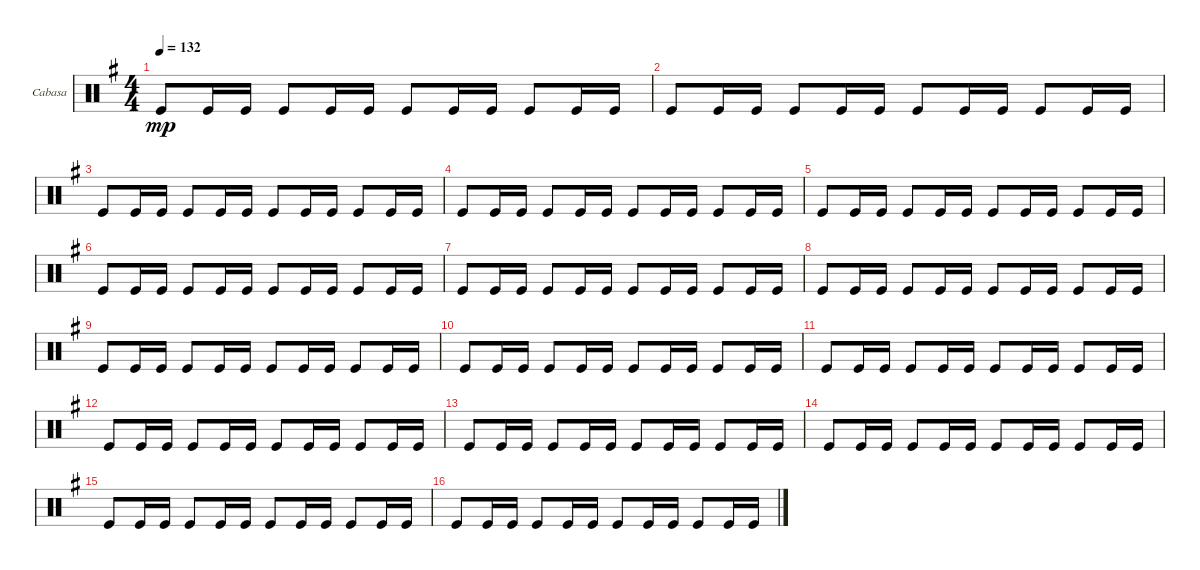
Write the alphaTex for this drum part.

\bracketExtendMode groupsimilarinstruments
\firstSystemTrackNameOrientation horizontal
\otherSystemsTrackNameOrientation horizontal
\track ("Cabasa" "Cabasa") {instrument percussion}
\staff {score}
\articulation defaults
\ts (4 4)
\tempo 132
\clef neutral
\scale
0.333333
\ks g "Kick (hit)".8{dy mp} "Kick (hit)".16 "Kick (hit)".16 "Kick (hit)".8 "Kick (hit)".16 "Kick (hit)".16 "Kick (hit)".8 "Kick (hit)".16 "Kick (hit)".16 "Kick (hit)".8 "Kick (hit)".16 "Kick (hit)".16
|
\scale
0.333333 "Kick (hit)".8 "Kick (hit)".16 "Kick (hit)".16 "Kick (hit)".8 "Kick (hit)".16 "Kick (hit)".16 "Kick (hit)".8 "Kick (hit)".16 "Kick (hit)".16 "Kick (hit)".8 "Kick (hit)".16 "Kick (hit)".16 |
\scale
0.333333 "Kick (hit)".8 "Kick (hit)".16 "Kick (hit)".16 "Kick (hit)".8 "Kick (hit)".16 "Kick (hit)".16 "Kick (hit)".8 "Kick (hit)".16 "Kick (hit)".16 "Kick (hit)".8 "Kick (hit)".16 "Kick (hit)".16 |
\scale
0.333333 "Kick (hit)".8 "Kick (hit)".16 "Kick (hit)".16 "Kick (hit)".8 "Kick (hit)".16 "Kick (hit)".16 "Kick (hit)".8 "Kick (hit)".16 "Kick (hit)".16 "Kick (hit)".8 "Kick (hit)".16 "Kick (hit)".16 |
\scale
0.333333 "Kick (hit)".8 "Kick (hit)".16 "Kick (hit)".16 "Kick (hit)".8 "Kick (hit)".16 "Kick (hit)".16 "Kick (hit)".8 "Kick (hit)".16 "Kick (hit)".16 "Kick (hit)".8 "Kick (hit)".16 "Kick (hit)".16 |
\scale
0.333333 "Kick (hit)".8 "Kick (hit)".16 "Kick (hit)".16 "Kick (hit)".8 "Kick (hit)".16 "Kick (hit)".16 "Kick (hit)".8 "Kick (hit)".16 "Kick (hit)".16 "Kick (hit)".8 "Kick (hit)".16 "Kick (hit)".16 |
\scale
0.333333 "Kick (hit)".8 "Kick (hit)".16 "Kick (hit)".16 "Kick (hit)".8 "Kick (hit)".16 "Kick (hit)".16 "Kick (hit)".8 "Kick (hit)".16 "Kick (hit)".16 "Kick (hit)".8 "Kick (hit)".16 "Kick (hit)".16 |
\scale
0.333333 "Kick (hit)".8 "Kick (hit)".16 "Kick (hit)".16 "Kick (hit)".8 "Kick (hit)".16 "Kick (hit)".16 "Kick (hit)".8 "Kick (hit)".16 "Kick (hit)".16 "Kick (hit)".8 "Kick (hit)".16 "Kick (hit)".16 |
\scale
0.333333 "Kick (hit)".8 "Kick (hit)".16 "Kick (hit)".16 "Kick (hit)".8 "Kick (hit)".16 "Kick (hit)".16 "Kick (hit)".8 "Kick (hit)".16 "Kick (hit)".16 "Kick (hit)".8 "Kick (hit)".16 "Kick (hit)".16 |
\scale
0.333333 "Kick (hit)".8 "Kick (hit)".16 "Kick (hit)".16 "Kick (hit)".8 "Kick (hit)".16 "Kick (hit)".16 "Kick (hit)".8 "Kick (hit)".16 "Kick (hit)".16 "Kick (hit)".8 "Kick (hit)".16 "Kick (hit)".16 |
\scale
0.333333 "Kick (hit)".8 "Kick (hit)".16 "Kick (hit)".16 "Kick (hit)".8 "Kick (hit)".16 "Kick (hit)".16 "Kick (hit)".8 "Kick (hit)".16 "Kick (hit)".16 "Kick (hit)".8 "Kick (hit)".16 "Kick (hit)".16 |
\scale
0.333333 "Kick (hit)".8 "Kick (hit)".16 "Kick (hit)".16 "Kick (hit)".8 "Kick (hit)".16 "Kick (hit)".16 "Kick (hit)".8 "Kick (hit)".16 "Kick (hit)".16 "Kick (hit)".8 "Kick (hit)".16 "Kick (hit)".16 |
\scale
0.333333 "Kick (hit)".8 "Kick (hit)".16 "Kick (hit)".16 "Kick (hit)".8 "Kick (hit)".16 "Kick (hit)".16 "Kick (hit)".8 "Kick (hit)".16 "Kick (hit)".16 "Kick (hit)".8 "Kick (hit)".16 "Kick (hit)".16 |
\scale
0.333333 "Kick (hit)".8 "Kick (hit)".16 "Kick (hit)".16 "Kick (hit)".8 "Kick (hit)".16 "Kick (hit)".16 "Kick (hit)".8 "Kick (hit)".16 "Kick (hit)".16 "Kick (hit)".8 "Kick (hit)".16 "Kick (hit)".16 |
\scale
0.333333 "Kick (hit)".8 "Kick (hit)".16 "Kick (hit)".16 "Kick (hit)".8 "Kick (hit)".16 "Kick (hit)".16 "Kick (hit)".8 "Kick (hit)".16 "Kick (hit)".16 "Kick (hit)".8 "Kick (hit)".16 "Kick (hit)".16 |
\scale
0.333333 "Kick (hit)".8 "Kick (hit)".16 "Kick (hit)".16 "Kick (hit)".8 "Kick (hit)".16 "Kick (hit)".16 "Kick (hit)".8 "Kick (hit)".16 "Kick (hit)".16 "Kick (hit)".8 "Kick (hit)".16 "Kick (hit)".16
